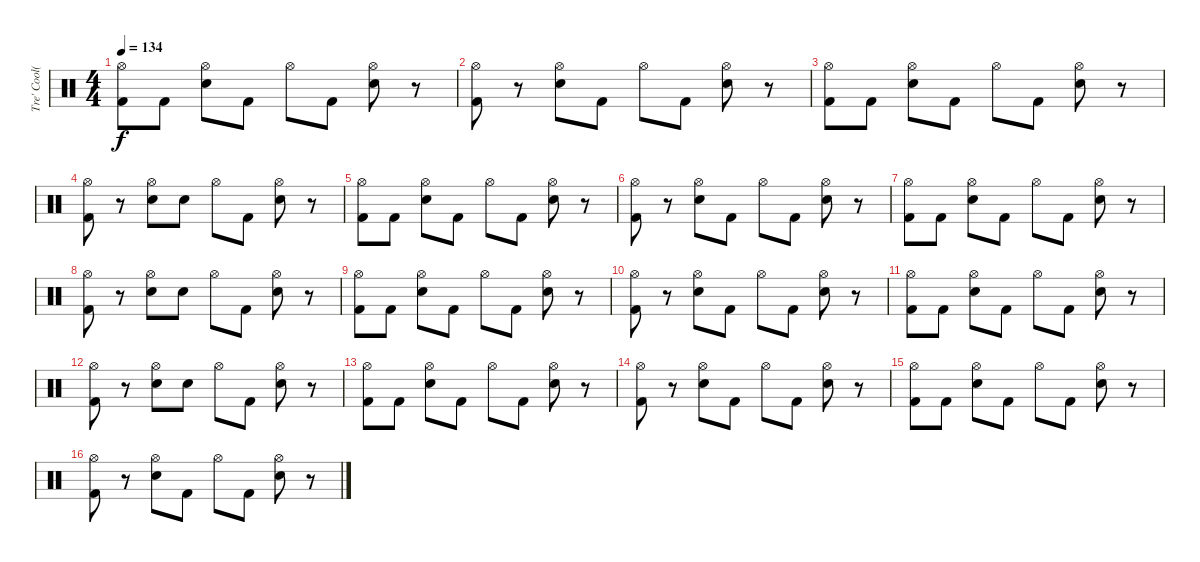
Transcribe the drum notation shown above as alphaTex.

\track ("Tre' Cool(Drums)" "Tre' Cool(") {instrument percussion}
\staff {score}
\articulation defaults
\ts (4 4)
\tempo 134
\clef neutral
\ks c
("Kick (hit) 2" "Hi-Hat (open)").8{dy f} "Kick (hit) 2".8 ("Electric Snare (hit)" "Hi-Hat (open)").8 "Kick (hit) 2".8 "Hi-Hat (open)".8 "Kick (hit) 2".8 ("Electric Snare (hit)" "Hi-Hat (open)").8 r.8 |
("Kick (hit) 2" "Hi-Hat (open)").8 r.8 ("Electric Snare (hit)" "Hi-Hat (open)").8 "Kick (hit) 2".8 "Hi-Hat (open)".8 "Kick (hit) 2".8 ("Electric Snare (hit)" "Hi-Hat (open)").8 r.8 |
("Kick (hit) 2" "Hi-Hat (open)").8 "Kick (hit) 2".8 ("Electric Snare (hit)" "Hi-Hat (open)").8 "Kick (hit) 2".8 "Hi-Hat (open)".8 "Kick (hit) 2".8 ("Electric Snare (hit)" "Hi-Hat (open)").8 r.8 |
("Kick (hit) 2" "Hi-Hat (open)").8 r.8 ("Electric Snare (hit)" "Hi-Hat (open)").8 "Electric Snare (hit)".8 "Hi-Hat (open)".8 "Kick (hit) 2".8 ("Electric Snare (hit)" "Hi-Hat (open)").8 r.8 |
("Kick (hit) 2" "Hi-Hat (open)").8 "Kick (hit) 2".8 ("Electric Snare (hit)" "Hi-Hat (open)").8 "Kick (hit) 2".8 "Hi-Hat (open)".8 "Kick (hit) 2".8 ("Electric Snare (hit)" "Hi-Hat (open)").8 r.8 |
("Kick (hit) 2" "Hi-Hat (open)").8 r.8 ("Electric Snare (hit)" "Hi-Hat (open)").8 "Kick (hit) 2".8 "Hi-Hat (open)".8 "Kick (hit) 2".8 ("Electric Snare (hit)" "Hi-Hat (open)").8 r.8 |
("Kick (hit) 2" "Hi-Hat (open)").8 "Kick (hit) 2".8 ("Electric Snare (hit)" "Hi-Hat (open)").8 "Kick (hit) 2".8 "Hi-Hat (open)".8 "Kick (hit) 2".8 ("Electric Snare (hit)" "Hi-Hat (open)").8 r.8 |
("Kick (hit) 2" "Hi-Hat (open)").8 r.8 ("Electric Snare (hit)" "Hi-Hat (open)").8 "Electric Snare (hit)".8 "Hi-Hat (open)".8 "Kick (hit) 2".8 ("Electric Snare (hit)" "Hi-Hat (open)").8 r.8 |
("Kick (hit) 2" "Hi-Hat (open)").8 "Kick (hit) 2".8 ("Electric Snare (hit)" "Hi-Hat (open)").8 "Kick (hit) 2".8 "Hi-Hat (open)".8 "Kick (hit) 2".8 ("Electric Snare (hit)" "Hi-Hat (open)").8 r.8 |
("Kick (hit) 2" "Hi-Hat (open)").8 r.8 ("Electric Snare (hit)" "Hi-Hat (open)").8 "Kick (hit) 2".8 "Hi-Hat (open)".8 "Kick (hit) 2".8 ("Electric Snare (hit)" "Hi-Hat (open)").8 r.8 |
("Kick (hit) 2" "Hi-Hat (open)").8 "Kick (hit) 2".8 ("Electric Snare (hit)" "Hi-Hat (open)").8 "Kick (hit) 2".8 "Hi-Hat (open)".8 "Kick (hit) 2".8 ("Electric Snare (hit)" "Hi-Hat (open)").8 r.8 |
("Kick (hit) 2" "Hi-Hat (open)").8 r.8 ("Electric Snare (hit)" "Hi-Hat (open)").8 "Electric Snare (hit)".8 "Hi-Hat (open)".8 "Kick (hit) 2".8 ("Electric Snare (hit)" "Hi-Hat (open)").8 r.8 |
("Kick (hit) 2" "Hi-Hat (open)").8 "Kick (hit) 2".8 ("Electric Snare (hit)" "Hi-Hat (open)").8 "Kick (hit) 2".8 "Hi-Hat (open)".8 "Kick (hit) 2".8 ("Electric Snare (hit)" "Hi-Hat (open)").8 r.8 |
("Kick (hit) 2" "Hi-Hat (open)").8 r.8 ("Electric Snare (hit)" "Hi-Hat (open)").8 "Kick (hit) 2".8 "Hi-Hat (open)".8 "Kick (hit) 2".8 ("Electric Snare (hit)" "Hi-Hat (open)").8 r.8 |
("Kick (hit) 2" "Hi-Hat (open)").8 "Kick (hit) 2".8 ("Electric Snare (hit)" "Hi-Hat (open)").8 "Kick (hit) 2".8 "Hi-Hat (open)".8 "Kick (hit) 2".8 ("Electric Snare (hit)" "Hi-Hat (open)").8 r.8 |
("Kick (hit) 2" "Hi-Hat (open)").8 r.8 ("Electric Snare (hit)" "Hi-Hat (open)").8 "Kick (hit) 2".8 "Hi-Hat (open)".8 "Kick (hit) 2".8 ("Electric Snare (hit)" "Hi-Hat (open)").8 r.8
